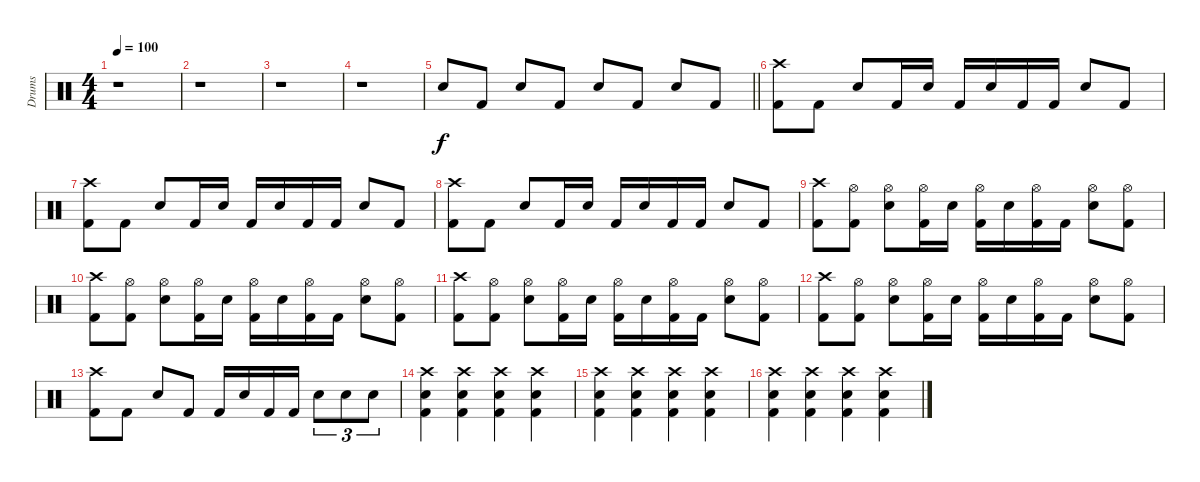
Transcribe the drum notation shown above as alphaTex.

\track ("Drums" "Drums") {instrument percussion}
\staff {score}
\articulation defaults
\ts (4 4)
\tempo 100
\clef neutral
\ks c
r.1{dy f} |
r.1 |
r.1 |
r.1 |
\barLineRight lightlight "Snare (hit) 2".8 "Kick (hit) 2".8 "Snare (hit) 2".8 "Kick (hit) 2".8 "Snare (hit) 2".8 "Kick (hit) 2".8 "Snare (hit) 2".8 "Kick (hit) 2".8
|
("Kick (hit) 2" "Crash high (hit)").8 "Kick (hit) 2".8 "Snare (hit) 2".8 "Kick (hit) 2".16 "Snare (hit) 2".16 "Kick (hit) 2".16 "Snare (hit) 2".16 "Kick (hit) 2".16 "Kick (hit) 2".16 "Snare (hit) 2".8 "Kick (hit) 2".8 |
("Kick (hit) 2" "Crash high (hit)").8 "Kick (hit) 2".8 "Snare (hit) 2".8 "Kick (hit) 2".16 "Snare (hit) 2".16 "Kick (hit) 2".16 "Snare (hit) 2".16 "Kick (hit) 2".16 "Kick (hit) 2".16 "Snare (hit) 2".8 "Kick (hit) 2".8 |
("Kick (hit) 2" "Crash high (hit)").8 "Kick (hit) 2".8 "Snare (hit) 2".8 "Kick (hit) 2".16 "Snare (hit) 2".16 "Kick (hit) 2".16 "Snare (hit) 2".16 "Kick (hit) 2".16 "Kick (hit) 2".16 "Snare (hit) 2".8 "Kick (hit) 2".8 |
("Kick (hit) 2" "Crash high (hit)").8 ("Kick (hit) 2" "Hi-Hat (open)").8 ("Snare (hit) 2" "Hi-Hat (open)").8 ("Kick (hit) 2" "Hi-Hat (open)").16 "Snare (hit) 2".16 ("Kick (hit) 2" "Hi-Hat (open)").16 "Snare (hit) 2".16 ("Kick (hit) 2" "Hi-Hat (open)").16 "Kick (hit) 2".16 ("Snare (hit) 2" "Hi-Hat (open)").8 ("Kick (hit) 2" "Hi-Hat (open)").8 |
("Kick (hit) 2" "Crash high (hit)").8 ("Kick (hit) 2" "Hi-Hat (open)").8 ("Snare (hit) 2" "Hi-Hat (open)").8 ("Kick (hit) 2" "Hi-Hat (open)").16 "Snare (hit) 2".16 ("Kick (hit) 2" "Hi-Hat (open)").16 "Snare (hit) 2".16 ("Kick (hit) 2" "Hi-Hat (open)").16 "Kick (hit) 2".16 ("Snare (hit) 2" "Hi-Hat (open)").8 ("Kick (hit) 2" "Hi-Hat (open)").8 |
("Kick (hit) 2" "Crash high (hit)").8 ("Kick (hit) 2" "Hi-Hat (open)").8 ("Snare (hit) 2" "Hi-Hat (open)").8 ("Kick (hit) 2" "Hi-Hat (open)").16 "Snare (hit) 2".16 ("Kick (hit) 2" "Hi-Hat (open)").16 "Snare (hit) 2".16 ("Kick (hit) 2" "Hi-Hat (open)").16 "Kick (hit) 2".16 ("Snare (hit) 2" "Hi-Hat (open)").8 ("Kick (hit) 2" "Hi-Hat (open)").8 |
("Kick (hit) 2" "Crash high (hit)").8 ("Kick (hit) 2" "Hi-Hat (open)").8 ("Snare (hit) 2" "Hi-Hat (open)").8 ("Kick (hit) 2" "Hi-Hat (open)").16 "Snare (hit) 2".16 ("Kick (hit) 2" "Hi-Hat (open)").16 "Snare (hit) 2".16 ("Kick (hit) 2" "Hi-Hat (open)").16 "Kick (hit) 2".16 ("Snare (hit) 2" "Hi-Hat (open)").8 ("Kick (hit) 2" "Hi-Hat (open)").8 |
("Kick (hit) 2" "Crash high (hit)").8 "Kick (hit) 2".8 "Snare (hit) 2".8 "Kick (hit) 2".8 "Kick (hit) 2".16 "Snare (hit) 2".16 "Kick (hit) 2".16 "Kick (hit) 2".16 "Snare (hit) 2".8{tu (3 2)} "Snare (hit) 2".8{tu (3 2)} "Snare (hit) 2".8{tu (3 2)} |
("Kick (hit) 2" "Snare (hit) 2" "Crash high (hit)").4 ("Kick (hit) 2" "Snare (hit) 2" "Crash high (hit)").4 ("Kick (hit) 2" "Snare (hit) 2" "Crash high (hit)").4 ("Kick (hit) 2" "Snare (hit) 2" "Crash high (hit)").4 |
("Kick (hit) 2" "Snare (hit) 2" "Crash high (hit)").4 ("Kick (hit) 2" "Snare (hit) 2" "Crash high (hit)").4 ("Kick (hit) 2" "Snare (hit) 2" "Crash high (hit)").4 ("Kick (hit) 2" "Snare (hit) 2" "Crash high (hit)").4 |
("Kick (hit) 2" "Snare (hit) 2" "Crash high (hit)").4 ("Kick (hit) 2" "Snare (hit) 2" "Crash high (hit)").4 ("Kick (hit) 2" "Snare (hit) 2" "Crash high (hit)").4 ("Kick (hit) 2" "Snare (hit) 2" "Crash high (hit)").4
